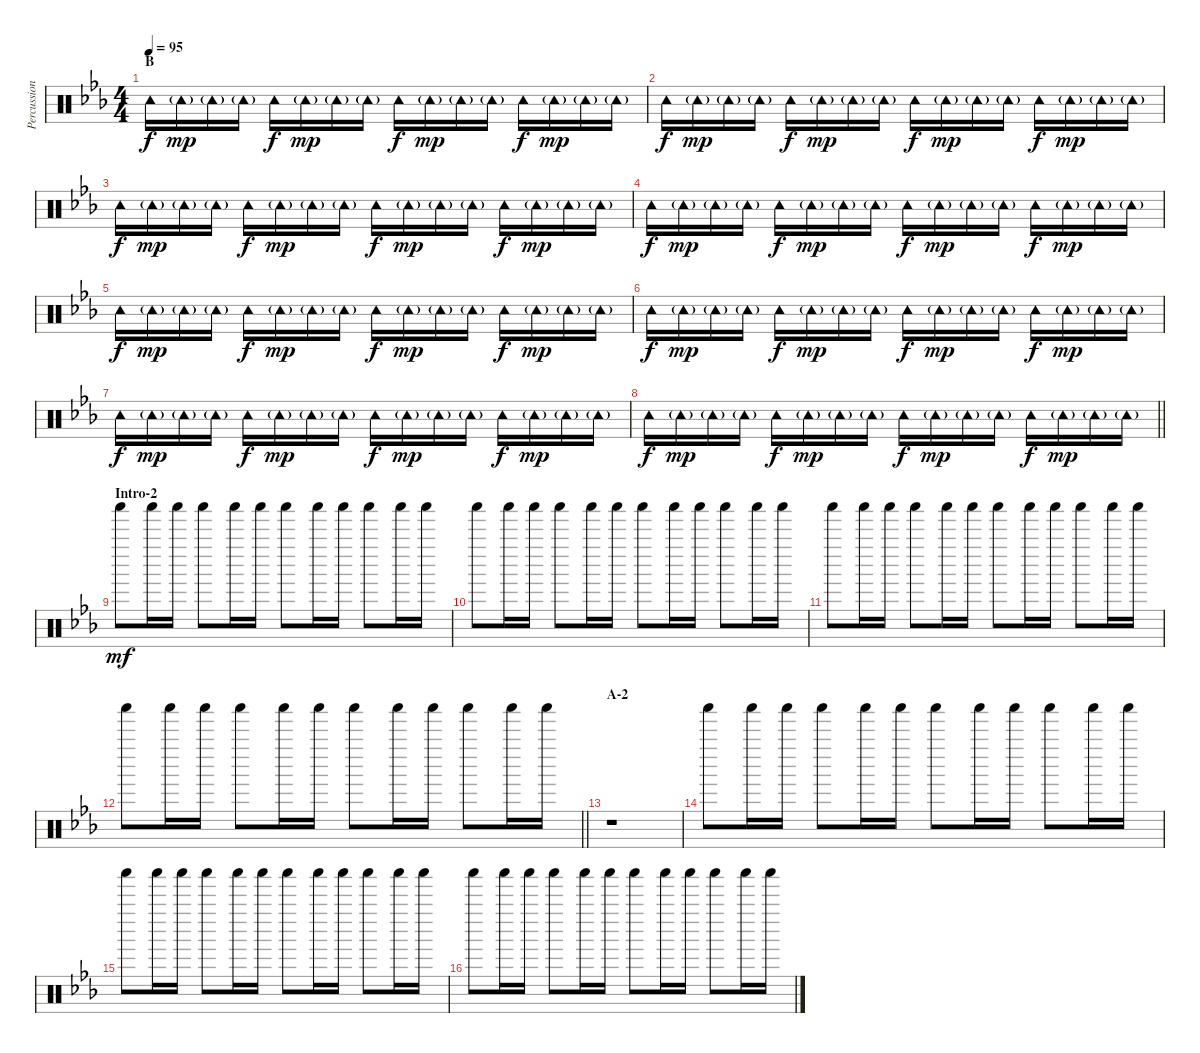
\track ("Percussion" "Percussion") {instrument percussion}
\staff {score}
\articulation defaults
\ts (4 4)
\section ("" "B")
\tempo 95
\clef neutral
\ks cminor "Tambourine (hit)".16{dy f} "Tambourine (hit)"{g}.16{dy mp} "Tambourine (hit)"{g}.16 "Tambourine (hit)"{g}.16 "Tambourine (hit)".16{dy f} "Tambourine (hit)"{g}.16{dy mp} "Tambourine (hit)"{g}.16 "Tambourine (hit)"{g}.16 "Tambourine (hit)".16{dy f} "Tambourine (hit)"{g}.16{dy mp} "Tambourine (hit)"{g}.16 "Tambourine (hit)"{g}.16 "Tambourine (hit)".16{dy f} "Tambourine (hit)"{g}.16{dy mp} "Tambourine (hit)"{g}.16 "Tambourine (hit)"{g}.16
|
"Tambourine (hit)".16{dy f} "Tambourine (hit)"{g}.16{dy mp} "Tambourine (hit)"{g}.16 "Tambourine (hit)"{g}.16 "Tambourine (hit)".16{dy f} "Tambourine (hit)"{g}.16{dy mp} "Tambourine (hit)"{g}.16 "Tambourine (hit)"{g}.16 "Tambourine (hit)".16{dy f} "Tambourine (hit)"{g}.16{dy mp} "Tambourine (hit)"{g}.16 "Tambourine (hit)"{g}.16 "Tambourine (hit)".16{dy f} "Tambourine (hit)"{g}.16{dy mp} "Tambourine (hit)"{g}.16 "Tambourine (hit)"{g}.16 |
"Tambourine (hit)".16{dy f} "Tambourine (hit)"{g}.16{dy mp} "Tambourine (hit)"{g}.16 "Tambourine (hit)"{g}.16 "Tambourine (hit)".16{dy f} "Tambourine (hit)"{g}.16{dy mp} "Tambourine (hit)"{g}.16 "Tambourine (hit)"{g}.16 "Tambourine (hit)".16{dy f} "Tambourine (hit)"{g}.16{dy mp} "Tambourine (hit)"{g}.16 "Tambourine (hit)"{g}.16 "Tambourine (hit)".16{dy f} "Tambourine (hit)"{g}.16{dy mp} "Tambourine (hit)"{g}.16 "Tambourine (hit)"{g}.16 |
"Tambourine (hit)".16{dy f} "Tambourine (hit)"{g}.16{dy mp} "Tambourine (hit)"{g}.16 "Tambourine (hit)"{g}.16 "Tambourine (hit)".16{dy f} "Tambourine (hit)"{g}.16{dy mp} "Tambourine (hit)"{g}.16 "Tambourine (hit)"{g}.16 "Tambourine (hit)".16{dy f} "Tambourine (hit)"{g}.16{dy mp} "Tambourine (hit)"{g}.16 "Tambourine (hit)"{g}.16 "Tambourine (hit)".16{dy f} "Tambourine (hit)"{g}.16{dy mp} "Tambourine (hit)"{g}.16 "Tambourine (hit)"{g}.16 |
"Tambourine (hit)".16{dy f} "Tambourine (hit)"{g}.16{dy mp} "Tambourine (hit)"{g}.16 "Tambourine (hit)"{g}.16 "Tambourine (hit)".16{dy f} "Tambourine (hit)"{g}.16{dy mp} "Tambourine (hit)"{g}.16 "Tambourine (hit)"{g}.16 "Tambourine (hit)".16{dy f} "Tambourine (hit)"{g}.16{dy mp} "Tambourine (hit)"{g}.16 "Tambourine (hit)"{g}.16 "Tambourine (hit)".16{dy f} "Tambourine (hit)"{g}.16{dy mp} "Tambourine (hit)"{g}.16 "Tambourine (hit)"{g}.16 |
"Tambourine (hit)".16{dy f} "Tambourine (hit)"{g}.16{dy mp} "Tambourine (hit)"{g}.16 "Tambourine (hit)"{g}.16 "Tambourine (hit)".16{dy f} "Tambourine (hit)"{g}.16{dy mp} "Tambourine (hit)"{g}.16 "Tambourine (hit)"{g}.16 "Tambourine (hit)".16{dy f} "Tambourine (hit)"{g}.16{dy mp} "Tambourine (hit)"{g}.16 "Tambourine (hit)"{g}.16 "Tambourine (hit)".16{dy f} "Tambourine (hit)"{g}.16{dy mp} "Tambourine (hit)"{g}.16 "Tambourine (hit)"{g}.16 |
"Tambourine (hit)".16{dy f} "Tambourine (hit)"{g}.16{dy mp} "Tambourine (hit)"{g}.16 "Tambourine (hit)"{g}.16 "Tambourine (hit)".16{dy f} "Tambourine (hit)"{g}.16{dy mp} "Tambourine (hit)"{g}.16 "Tambourine (hit)"{g}.16 "Tambourine (hit)".16{dy f} "Tambourine (hit)"{g}.16{dy mp} "Tambourine (hit)"{g}.16 "Tambourine (hit)"{g}.16 "Tambourine (hit)".16{dy f} "Tambourine (hit)"{g}.16{dy mp} "Tambourine (hit)"{g}.16 "Tambourine (hit)"{g}.16 |
\barLineRight lightlight "Tambourine (hit)".16{dy f} "Tambourine (hit)"{g}.16{dy mp} "Tambourine (hit)"{g}.16 "Tambourine (hit)"{g}.16 "Tambourine (hit)".16{dy f} "Tambourine (hit)"{g}.16{dy mp} "Tambourine (hit)"{g}.16 "Tambourine (hit)"{g}.16 "Tambourine (hit)".16{dy f} "Tambourine (hit)"{g}.16{dy mp} "Tambourine (hit)"{g}.16 "Tambourine (hit)"{g}.16 "Tambourine (hit)".16{dy f} "Tambourine (hit)"{g}.16{dy mp} "Tambourine (hit)"{g}.16 "Tambourine (hit)"{g}.16
|
\section ("" "Intro-2")
"Shaker (hit)".8{dy mf} "Shaker (hit)".16 "Shaker (hit)".16 "Shaker (hit)".8 "Shaker (hit)".16 "Shaker (hit)".16 "Shaker (hit)".8 "Shaker (hit)".16 "Shaker (hit)".16 "Shaker (hit)".8 "Shaker (hit)".16 "Shaker (hit)".16 |
"Shaker (hit)".8 "Shaker (hit)".16 "Shaker (hit)".16 "Shaker (hit)".8 "Shaker (hit)".16 "Shaker (hit)".16 "Shaker (hit)".8 "Shaker (hit)".16 "Shaker (hit)".16 "Shaker (hit)".8 "Shaker (hit)".16 "Shaker (hit)".16 |
"Shaker (hit)".8 "Shaker (hit)".16 "Shaker (hit)".16 "Shaker (hit)".8 "Shaker (hit)".16 "Shaker (hit)".16 "Shaker (hit)".8 "Shaker (hit)".16 "Shaker (hit)".16 "Shaker (hit)".8 "Shaker (hit)".16 "Shaker (hit)".16 |
\barLineRight lightlight "Shaker (hit)".8 "Shaker (hit)".16 "Shaker (hit)".16 "Shaker (hit)".8 "Shaker (hit)".16 "Shaker (hit)".16 "Shaker (hit)".8 "Shaker (hit)".16 "Shaker (hit)".16 "Shaker (hit)".8 "Shaker (hit)".16 "Shaker (hit)".16
|
\section ("" "A-2")
r.1 |
"Shaker (hit)".8 "Shaker (hit)".16 "Shaker (hit)".16 "Shaker (hit)".8 "Shaker (hit)".16 "Shaker (hit)".16 "Shaker (hit)".8 "Shaker (hit)".16 "Shaker (hit)".16 "Shaker (hit)".8 "Shaker (hit)".16 "Shaker (hit)".16 |
"Shaker (hit)".8 "Shaker (hit)".16 "Shaker (hit)".16 "Shaker (hit)".8 "Shaker (hit)".16 "Shaker (hit)".16 "Shaker (hit)".8 "Shaker (hit)".16 "Shaker (hit)".16 "Shaker (hit)".8 "Shaker (hit)".16 "Shaker (hit)".16 |
"Shaker (hit)".8 "Shaker (hit)".16 "Shaker (hit)".16 "Shaker (hit)".8 "Shaker (hit)".16 "Shaker (hit)".16 "Shaker (hit)".8 "Shaker (hit)".16 "Shaker (hit)".16 "Shaker (hit)".8 "Shaker (hit)".16 "Shaker (hit)".16
